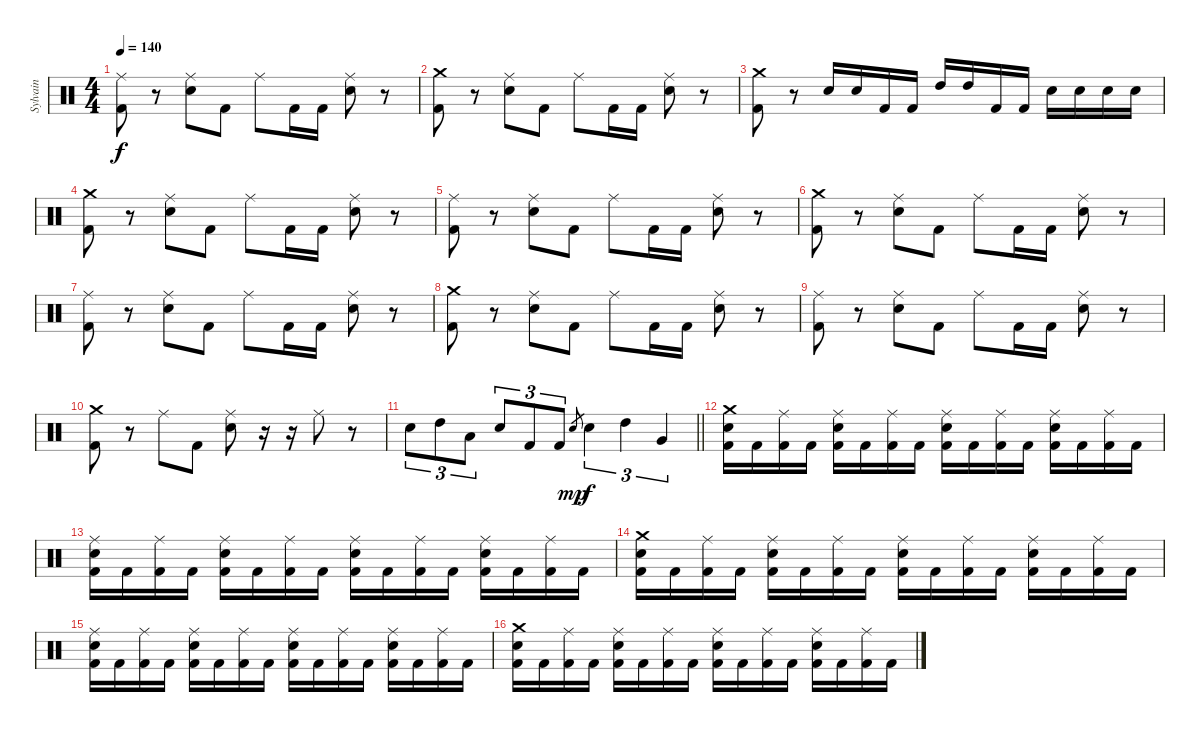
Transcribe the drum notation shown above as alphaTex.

\track ("Sylvain" "Sylvain") {instrument percussion}
\staff {score}
\articulation defaults
\ts (4 4)
\tempo 140
\clef neutral
\ks c
("Ride (middle)" "Kick (hit) 2").8{dy f} r.8 ("Ride (middle)" "Snare (hit) 2").8 "Kick (hit) 2".8 "Ride (middle)".8 "Kick (hit) 2".16 "Kick (hit) 2".16 ("Ride (middle)" "Snare (hit) 2").8 r.8 |
("Crash medium (hit)" "Kick (hit) 2").8 r.8 ("Ride (middle)" "Snare (hit) 2").8 "Kick (hit) 2".8 "Ride (middle)".8 "Kick (hit) 2".16 "Kick (hit) 2".16 ("Ride (middle)" "Snare (hit) 2").8 r.8 |
("Crash medium (hit)" "Kick (hit) 2").8 r.8 "Snare (hit) 2".16 "Snare (hit) 2".16 "Kick (hit) 2".16 "Kick (hit) 2".16 "High Tom (hit)".16 "High Tom (hit)".16 "Kick (hit) 2".16 "Kick (hit) 2".16 "Snare (hit) 2".16 "Snare (hit) 2".16 "Snare (hit) 2".16 "Snare (hit) 2".16 |
("Crash medium (hit)" "Kick (hit) 2").8 r.8 ("Ride (middle)" "Snare (hit) 2").8 "Kick (hit) 2".8 "Ride (middle)".8 "Kick (hit) 2".16 "Kick (hit) 2".16 ("Ride (middle)" "Snare (hit) 2").8 r.8 |
("Ride (middle)" "Kick (hit) 2").8 r.8 ("Ride (middle)" "Snare (hit) 2").8 "Kick (hit) 2".8 "Ride (middle)".8 "Kick (hit) 2".16 "Kick (hit) 2".16 ("Ride (middle)" "Snare (hit) 2").8 r.8 |
("Crash medium (hit)" "Kick (hit) 2").8 r.8 ("Ride (middle)" "Snare (hit) 2").8 "Kick (hit) 2".8 "Ride (middle)".8 "Kick (hit) 2".16 "Kick (hit) 2".16 ("Ride (middle)" "Snare (hit) 2").8 r.8 |
("Ride (middle)" "Kick (hit) 2").8 r.8 ("Ride (middle)" "Snare (hit) 2").8 "Kick (hit) 2".8 "Ride (middle)".8 "Kick (hit) 2".16 "Kick (hit) 2".16 ("Ride (middle)" "Snare (hit) 2").8 r.8 |
("Crash medium (hit)" "Kick (hit) 2").8 r.8 ("Ride (middle)" "Snare (hit) 2").8 "Kick (hit) 2".8 "Ride (middle)".8 "Kick (hit) 2".16 "Kick (hit) 2".16 ("Ride (middle)" "Snare (hit) 2").8 r.8 |
("Ride (middle)" "Kick (hit) 2").8 r.8 ("Ride (middle)" "Snare (hit) 2").8 "Kick (hit) 2".8 "Ride (middle)".8 "Kick (hit) 2".16 "Kick (hit) 2".16 ("Ride (middle)" "Snare (hit) 2").8 r.8 |
("Crash medium (hit)" "Kick (hit) 2").8 r.8 "Ride (middle)".8 "Kick (hit) 2".8 ("Ride (middle)" "Snare (hit) 2").8 r.16 r.16 "Ride (middle)".8 r.8 |
\barLineRight lightlight "Snare (hit) 2".8{tu (3 2)} "High Tom (hit)".8{tu (3 2)} "Low Tom (hit)".8{tu (3 2)} "Snare (hit) 2".8{tu (3 2)} "Kick (hit) 2".8{tu (3 2)} "Kick (hit) 2".8{tu (3 2)} "Snare (hit) 2".8{gr dy mp} "Snare (hit) 2".4{tu (3 2) dy f} "High Tom (hit)".4{tu (3 2)} "Very Low Tom (hit)".4{tu (3 2)}
|
("Crash medium (hit)" "Snare (hit) 2" "Kick (hit) 2").16 "Kick (hit) 2".16 ("Ride (middle)" "Kick (hit) 2").16 "Kick (hit) 2".16 ("Ride (middle)" "Snare (hit) 2" "Kick (hit) 2").16 "Kick (hit) 2".16 ("Ride (middle)" "Kick (hit) 2").16 "Kick (hit) 2".16 ("Ride (middle)" "Snare (hit) 2" "Kick (hit) 2").16 "Kick (hit) 2".16 ("Ride (middle)" "Kick (hit) 2").16 "Kick (hit) 2".16 ("Ride (middle)" "Snare (hit) 2" "Kick (hit) 2").16 "Kick (hit) 2".16 ("Ride (middle)" "Kick (hit) 2").16 "Kick (hit) 2".16 |
("Ride (middle)" "Snare (hit) 2" "Kick (hit) 2").16 "Kick (hit) 2".16 ("Ride (middle)" "Kick (hit) 2").16 "Kick (hit) 2".16 ("Ride (middle)" "Snare (hit) 2" "Kick (hit) 2").16 "Kick (hit) 2".16 ("Ride (middle)" "Kick (hit) 2").16 "Kick (hit) 2".16 ("Ride (middle)" "Snare (hit) 2" "Kick (hit) 2").16 "Kick (hit) 2".16 ("Ride (middle)" "Kick (hit) 2").16 "Kick (hit) 2".16 ("Ride (middle)" "Snare (hit) 2" "Kick (hit) 2").16 "Kick (hit) 2".16 ("Ride (middle)" "Kick (hit) 2").16 "Kick (hit) 2".16 |
("Crash medium (hit)" "Snare (hit) 2" "Kick (hit) 2").16 "Kick (hit) 2".16 ("Ride (middle)" "Kick (hit) 2").16 "Kick (hit) 2".16 ("Ride (middle)" "Snare (hit) 2" "Kick (hit) 2").16 "Kick (hit) 2".16 ("Ride (middle)" "Kick (hit) 2").16 "Kick (hit) 2".16 ("Ride (middle)" "Snare (hit) 2" "Kick (hit) 2").16 "Kick (hit) 2".16 ("Ride (middle)" "Kick (hit) 2").16 "Kick (hit) 2".16 ("Ride (middle)" "Snare (hit) 2" "Kick (hit) 2").16 "Kick (hit) 2".16 ("Ride (middle)" "Kick (hit) 2").16 "Kick (hit) 2".16 |
("Ride (middle)" "Snare (hit) 2" "Kick (hit) 2").16 "Kick (hit) 2".16 ("Ride (middle)" "Kick (hit) 2").16 "Kick (hit) 2".16 ("Ride (middle)" "Snare (hit) 2" "Kick (hit) 2").16 "Kick (hit) 2".16 ("Ride (middle)" "Kick (hit) 2").16 "Kick (hit) 2".16 ("Ride (middle)" "Snare (hit) 2" "Kick (hit) 2").16 "Kick (hit) 2".16 ("Ride (middle)" "Kick (hit) 2").16 "Kick (hit) 2".16 ("Ride (middle)" "Snare (hit) 2" "Kick (hit) 2").16 "Kick (hit) 2".16 ("Ride (middle)" "Kick (hit) 2").16 "Kick (hit) 2".16 |
("Crash medium (hit)" "Snare (hit) 2" "Kick (hit) 2").16 "Kick (hit) 2".16 ("Ride (middle)" "Kick (hit) 2").16 "Kick (hit) 2".16 ("Ride (middle)" "Snare (hit) 2" "Kick (hit) 2").16 "Kick (hit) 2".16 ("Ride (middle)" "Kick (hit) 2").16 "Kick (hit) 2".16 ("Ride (middle)" "Snare (hit) 2" "Kick (hit) 2").16 "Kick (hit) 2".16 ("Ride (middle)" "Kick (hit) 2").16 "Kick (hit) 2".16 ("Ride (middle)" "Snare (hit) 2" "Kick (hit) 2").16 "Kick (hit) 2".16 ("Ride (middle)" "Kick (hit) 2").16 "Kick (hit) 2".16
